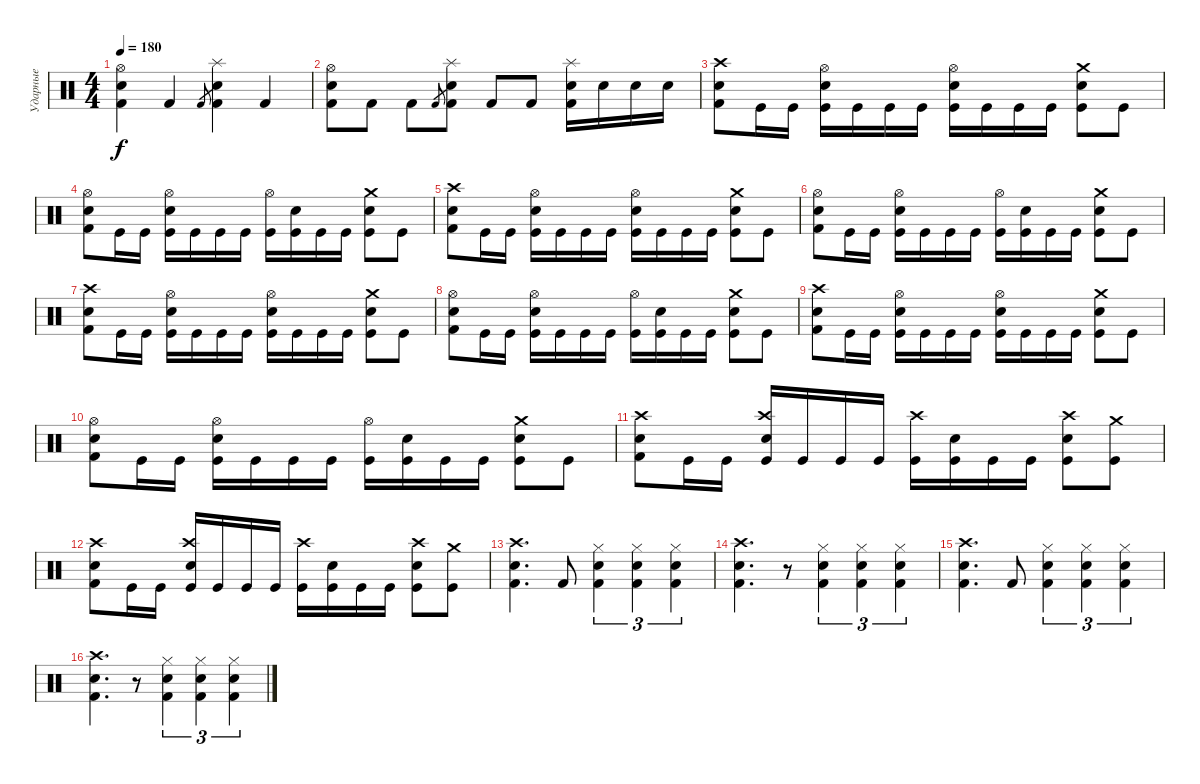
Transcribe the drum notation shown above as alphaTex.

\track ("Ударные" "Ударные") {instrument percussion}
\staff {score}
\articulation defaults
\ts (4 4)
\tempo 180
\clef neutral
\ks c
("Hi-Hat (open)" "Electric Snare (hit)" "Kick (hit) 2").4{dy f} "Kick (hit) 2".4 "Kick (hit) 2".8{gr} ("Splash (hit)" "Electric Snare (hit)" "Kick (hit) 2").4 "Kick (hit) 2".4 |
("Hi-Hat (open)" "Electric Snare (hit)" "Kick (hit) 2").8 "Kick (hit) 2".8 "Kick (hit) 2".8 "Kick (hit) 2".8{gr} ("Splash (hit)" "Electric Snare (hit)" "Kick (hit) 2").8 "Kick (hit) 2".8 "Kick (hit) 2".8 ("Splash (hit)" "Electric Snare (hit)" "Kick (hit) 2").16 "Electric Snare (hit)".16 "Electric Snare (hit)".16 "Electric Snare (hit)".16 |
("Crash high (hit)" "Electric Snare (hit)" "Kick (hit) 2").8 "Kick (hit)".16 "Kick (hit)".16 ("Hi-Hat (open)" "Electric Snare (hit)" "Kick (hit)").16 "Kick (hit)".16 "Kick (hit)".16 "Kick (hit)".16 ("Hi-Hat (open)" "Electric Snare (hit)" "Kick (hit)").16 "Kick (hit)".16 "Kick (hit)".16 "Kick (hit)".16 ("Crash medium (hit)" "Electric Snare (hit)" "Kick (hit)").8 "Kick (hit)".8 |
("Hi-Hat (open)" "Electric Snare (hit)" "Kick (hit) 2").8 "Kick (hit)".16 "Kick (hit)".16 ("Hi-Hat (open)" "Electric Snare (hit)" "Kick (hit)").16 "Kick (hit)".16 "Kick (hit)".16 "Kick (hit)".16 ("Hi-Hat (open)" "Kick (hit)").16 ("Electric Snare (hit)" "Kick (hit)").16 "Kick (hit)".16 "Kick (hit)".16 ("Crash medium (hit)" "Electric Snare (hit)" "Kick (hit)").8 "Kick (hit)".8 |
("Crash high (hit)" "Electric Snare (hit)" "Kick (hit) 2").8 "Kick (hit)".16 "Kick (hit)".16 ("Hi-Hat (open)" "Electric Snare (hit)" "Kick (hit)").16 "Kick (hit)".16 "Kick (hit)".16 "Kick (hit)".16 ("Hi-Hat (open)" "Electric Snare (hit)" "Kick (hit)").16 "Kick (hit)".16 "Kick (hit)".16 "Kick (hit)".16 ("Crash medium (hit)" "Electric Snare (hit)" "Kick (hit)").8 "Kick (hit)".8 |
("Hi-Hat (open)" "Electric Snare (hit)" "Kick (hit) 2").8 "Kick (hit)".16 "Kick (hit)".16 ("Hi-Hat (open)" "Electric Snare (hit)" "Kick (hit)").16 "Kick (hit)".16 "Kick (hit)".16 "Kick (hit)".16 ("Hi-Hat (open)" "Kick (hit)").16 ("Electric Snare (hit)" "Kick (hit)").16 "Kick (hit)".16 "Kick (hit)".16 ("Crash medium (hit)" "Electric Snare (hit)" "Kick (hit)").8 "Kick (hit)".8 |
("Crash high (hit)" "Electric Snare (hit)" "Kick (hit) 2").8 "Kick (hit)".16 "Kick (hit)".16 ("Hi-Hat (open)" "Electric Snare (hit)" "Kick (hit)").16 "Kick (hit)".16 "Kick (hit)".16 "Kick (hit)".16 ("Hi-Hat (open)" "Electric Snare (hit)" "Kick (hit)").16 "Kick (hit)".16 "Kick (hit)".16 "Kick (hit)".16 ("Crash medium (hit)" "Electric Snare (hit)" "Kick (hit)").8 "Kick (hit)".8 |
("Hi-Hat (open)" "Electric Snare (hit)" "Kick (hit) 2").8 "Kick (hit)".16 "Kick (hit)".16 ("Hi-Hat (open)" "Electric Snare (hit)" "Kick (hit)").16 "Kick (hit)".16 "Kick (hit)".16 "Kick (hit)".16 ("Hi-Hat (open)" "Kick (hit)").16 ("Electric Snare (hit)" "Kick (hit)").16 "Kick (hit)".16 "Kick (hit)".16 ("Crash medium (hit)" "Electric Snare (hit)" "Kick (hit)").8 "Kick (hit)".8 |
("Crash high (hit)" "Electric Snare (hit)" "Kick (hit) 2").8 "Kick (hit)".16 "Kick (hit)".16 ("Hi-Hat (open)" "Electric Snare (hit)" "Kick (hit)").16 "Kick (hit)".16 "Kick (hit)".16 "Kick (hit)".16 ("Hi-Hat (open)" "Electric Snare (hit)" "Kick (hit)").16 "Kick (hit)".16 "Kick (hit)".16 "Kick (hit)".16 ("Crash medium (hit)" "Electric Snare (hit)" "Kick (hit)").8 "Kick (hit)".8 |
("Hi-Hat (open)" "Electric Snare (hit)" "Kick (hit) 2").8 "Kick (hit)".16 "Kick (hit)".16 ("Hi-Hat (open)" "Electric Snare (hit)" "Kick (hit)").16 "Kick (hit)".16 "Kick (hit)".16 "Kick (hit)".16 ("Hi-Hat (open)" "Kick (hit)").16 ("Electric Snare (hit)" "Kick (hit)").16 "Kick (hit)".16 "Kick (hit)".16 ("Crash medium (hit)" "Electric Snare (hit)" "Kick (hit)").8 "Kick (hit)".8 |
("Crash high (hit)" "Electric Snare (hit)" "Kick (hit) 2").8 "Kick (hit)".16 "Kick (hit)".16 ("Crash high (hit)" "Electric Snare (hit)" "Kick (hit)").16 "Kick (hit)".16 "Kick (hit)".16 "Kick (hit)".16 ("Crash high (hit)" "Kick (hit)").16 ("Electric Snare (hit)" "Kick (hit)").16 "Kick (hit)".16 "Kick (hit)".16 ("Crash high (hit)" "Electric Snare (hit)" "Kick (hit)").8 ("Crash medium (hit)" "Kick (hit)").8 |
("Crash high (hit)" "Electric Snare (hit)" "Kick (hit) 2").8 "Kick (hit)".16 "Kick (hit)".16 ("Crash high (hit)" "Electric Snare (hit)" "Kick (hit)").16 "Kick (hit)".16 "Kick (hit)".16 "Kick (hit)".16 ("Crash high (hit)" "Kick (hit)").16 ("Electric Snare (hit)" "Kick (hit)").16 "Kick (hit)".16 "Kick (hit)".16 ("Crash high (hit)" "Electric Snare (hit)" "Kick (hit)").8 ("Crash medium (hit)" "Kick (hit)").8 |
("Crash high (hit)" "Electric Snare (hit)" "Kick (hit) 2").4{d} "Kick (hit) 2".8 ("Hi-Hat (closed)" "Electric Snare (hit)" "Kick (hit) 2").4{tu (3 2)} ("Hi-Hat (closed)" "Electric Snare (hit)" "Kick (hit) 2").4{tu (3 2)} ("Hi-Hat (closed)" "Electric Snare (hit)" "Kick (hit) 2").4{tu (3 2)} |
("Crash high (hit)" "Electric Snare (hit)" "Kick (hit) 2").4{d} r.8 ("Hi-Hat (closed)" "Electric Snare (hit)" "Kick (hit) 2").4{tu (3 2)} ("Hi-Hat (closed)" "Electric Snare (hit)" "Kick (hit) 2").4{tu (3 2)} ("Hi-Hat (closed)" "Electric Snare (hit)" "Kick (hit) 2").4{tu (3 2)} |
("Crash high (hit)" "Electric Snare (hit)" "Kick (hit) 2").4{d} "Kick (hit) 2".8 ("Hi-Hat (closed)" "Electric Snare (hit)" "Kick (hit) 2").4{tu (3 2)} ("Hi-Hat (closed)" "Electric Snare (hit)" "Kick (hit) 2").4{tu (3 2)} ("Hi-Hat (closed)" "Electric Snare (hit)" "Kick (hit) 2").4{tu (3 2)} |
("Crash high (hit)" "Electric Snare (hit)" "Kick (hit) 2").4{d} r.8 ("Hi-Hat (closed)" "Electric Snare (hit)" "Kick (hit) 2").4{tu (3 2)} ("Hi-Hat (closed)" "Electric Snare (hit)" "Kick (hit) 2").4{tu (3 2)} ("Hi-Hat (closed)" "Electric Snare (hit)" "Kick (hit) 2").4{tu (3 2)}
